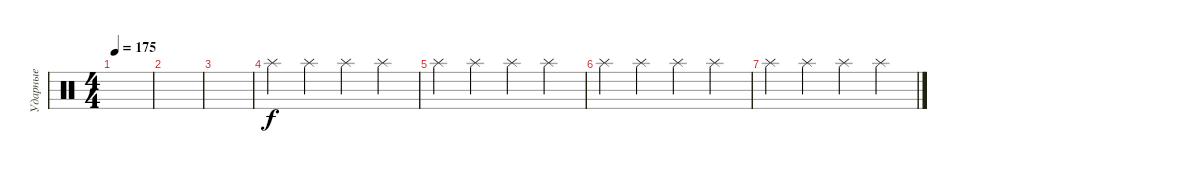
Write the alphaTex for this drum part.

\track ("Ударные" "Ударные") {instrument percussion}
\staff {score}
\articulation defaults
\ts (4 4)
\tempo 175
\clef neutral
\ks c
|
|
|
"Splash (hit)".4 "Splash (hit)".4 "Splash (hit)".4 "Splash (hit)".4 |
"Splash (hit)".4 "Splash (hit)".4 "Splash (hit)".4 "Splash (hit)".4 |
"Splash (hit)".4 "Splash (hit)".4 "Splash (hit)".4 "Splash (hit)".4 |
"Splash (hit)".4 "Splash (hit)".4 "Splash (hit)".4 "Splash (hit)".4
